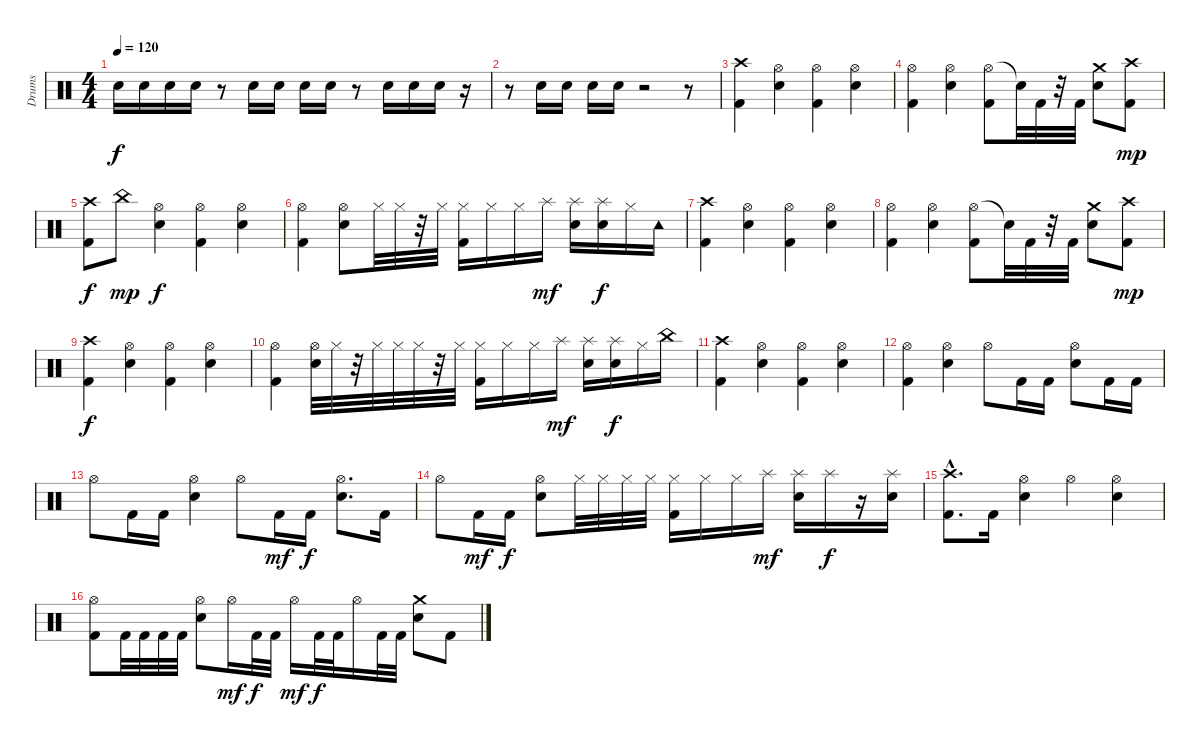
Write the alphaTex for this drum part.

\track ("Drums" "Drums") {instrument percussion}
\staff {score}
\articulation defaults
\ts (4 4)
\tempo 120
\tempo 110
\tempo 120
\clef neutral
\ks c "Electric Snare (hit)".16{dy f} "Electric Snare (hit)".16 "Electric Snare (hit)".16 "Electric Snare (hit)".16
r.8 "Electric Snare (hit)".16 "Electric Snare (hit)".16 "Electric Snare (hit)".16 "Electric Snare (hit)".16 r.8 "Electric Snare (hit)".16 "Electric Snare (hit)".16 "Electric Snare (hit)".16 r.16 |
r.8 "Electric Snare (hit)".16 "Electric Snare (hit)".16 "Electric Snare (hit)".16 "Electric Snare (hit)".16 r.2 r.8 |
("Kick (hit) 2" "Crash high (hit)").4 ("Electric Snare (hit)" "Hi-Hat (open)").4 ("Kick (hit) 2" "Hi-Hat (open)").4 ("Electric Snare (hit)" "Hi-Hat (open)").4 |
("Kick (hit) 2" "Hi-Hat (open)").4 ("Electric Snare (hit)" "Hi-Hat (open)").4 ("Hi-Hat (open)" "Kick (hit) 2").8 "Snare (hit)"{t}.32 "Kick (hit) 2".32 r.32 "Kick (hit) 2".32 ("Electric Snare (hit)" "Crash medium (hit)").8 ("Kick (hit) 2" "Crash high (hit)").8{dy mp} |
("Crash high (hit)" "Kick (hit) 2").8{dy f} "China (hit)".8{dy mp} ("Electric Snare (hit)" "Hi-Hat (open)").4{dy f} ("Kick (hit) 2" "Hi-Hat (open)").4 ("Electric Snare (hit)" "Hi-Hat (open)").4 |
("Kick (hit) 2" "Hi-Hat (open)").4 ("Electric Snare (hit)" "Hi-Hat (open)").8 "Hi-Hat (closed)".32 "Hi-Hat (closed)".32 r.32 "Hi-Hat (closed)".32 ("Kick (hit) 2" "Hi-Hat (closed)").16 "Hi-Hat (closed)".16 "Hi-Hat (closed)".16 "Splash (hit)".16{dy mf} ("Splash (hit)" "Electric Snare (hit)").16 ("Electric Snare (hit)" "Splash (hit)").16{dy f} "Hi-Hat (closed)".16 "Tambourine (hit)".16 |
("Crash high (hit)" "Kick (hit) 2").4 ("Electric Snare (hit)" "Hi-Hat (open)").4 ("Kick (hit) 2" "Hi-Hat (open)").4 ("Electric Snare (hit)" "Hi-Hat (open)").4 |
("Kick (hit) 2" "Hi-Hat (open)").4 ("Electric Snare (hit)" "Hi-Hat (open)").4 ("Hi-Hat (open)" "Kick (hit) 2").8 "Snare (hit)"{t}.32 "Kick (hit) 2".32 r.32 "Kick (hit) 2".32 ("Electric Snare (hit)" "Crash medium (hit)").8 ("Kick (hit) 2" "Crash high (hit)").8{dy mp} |
("Kick (hit) 2" "Crash high (hit)").4{dy f} ("Electric Snare (hit)" "Hi-Hat (open)").4 ("Kick (hit) 2" "Hi-Hat (open)").4 ("Electric Snare (hit)" "Hi-Hat (open)").4 |
("Kick (hit) 2" "Hi-Hat (open)").4 ("Electric Snare (hit)" "Hi-Hat (open)").32 "Hi-Hat (closed)".32 r.32 "Hi-Hat (closed)".32 "Hi-Hat (closed)".32 "Hi-Hat (closed)".32 r.32 "Hi-Hat (closed)".32 ("Kick (hit) 2" "Hi-Hat (closed)").16 "Hi-Hat (closed)".16 "Hi-Hat (closed)".16 "Splash (hit)".16{dy mf} ("Splash (hit)" "Electric Snare (hit)").16 ("Electric Snare (hit)" "Splash (hit)").16{dy f} "Hi-Hat (closed)".16 "China (hit)".16 |
("Crash high (hit)" "Kick (hit) 2").4 ("Electric Snare (hit)" "Hi-Hat (open)").4 ("Kick (hit) 2" "Hi-Hat (open)").4 ("Electric Snare (hit)" "Hi-Hat (open)").4 |
("Kick (hit) 2" "Hi-Hat (open)").4 ("Electric Snare (hit)" "Hi-Hat (open)").4 "Hi-Hat (open)".8 "Kick (hit) 2".16 "Kick (hit) 2".16 ("Electric Snare (hit)" "Hi-Hat (open)").8 "Kick (hit) 2".16 "Kick (hit) 2".16 |
"Hi-Hat (open)".8 "Kick (hit) 2".16 "Kick (hit) 2".16 ("Hi-Hat (open)" "Electric Snare (hit)").4 "Hi-Hat (open)".8 "Kick (hit) 2".16{dy mf} "Kick (hit) 2".16{dy f} ("Hi-Hat (open)" "Electric Snare (hit)").8{d} "Kick (hit) 2".16 |
"Hi-Hat (open)".8 "Kick (hit) 2".16{dy mf} "Kick (hit) 2".16{dy f} ("Electric Snare (hit)" "Hi-Hat (open)").8 "Hi-Hat (closed)".32 "Hi-Hat (closed)".32 "Hi-Hat (closed)".32 "Hi-Hat (closed)".32 ("Kick (hit) 2" "Hi-Hat (closed)").16 "Hi-Hat (closed)".16 "Hi-Hat (closed)".16 "Splash (hit)".16{dy mf} ("Splash (hit)" "Electric Snare (hit)").16 "Splash (hit)".16{dy f} r.16 ("Electric Snare (hit)" "Splash (hit)").16 |
("Crash high (hit)" "Kick (hit) 2"{hac}).8{d} "Kick (hit) 2".16 ("Electric Snare (hit)" "Hi-Hat (open)").4 "Hi-Hat (open)".4 ("Electric Snare (hit)" "Hi-Hat (open)").4 |
("Hi-Hat (open)" "Kick (hit) 2").8 "Kick (hit) 2".32 "Kick (hit) 2".32 "Kick (hit) 2".32 "Kick (hit) 2".32 ("Electric Snare (hit)" "Hi-Hat (open)").8 "Hi-Hat (open)".16{dy mf} "Kick (hit) 2".32{dy f} "Kick (hit) 2".32 "Hi-Hat (open)".16{dy mf} "Kick (hit) 2".32{dy f} "Kick (hit) 2".32 "Hi-Hat (open)".16 "Kick (hit) 2".32 "Kick (hit) 2".32 ("Electric Snare (hit)" "Crash medium (hit)").8 "Kick (hit) 2".8
